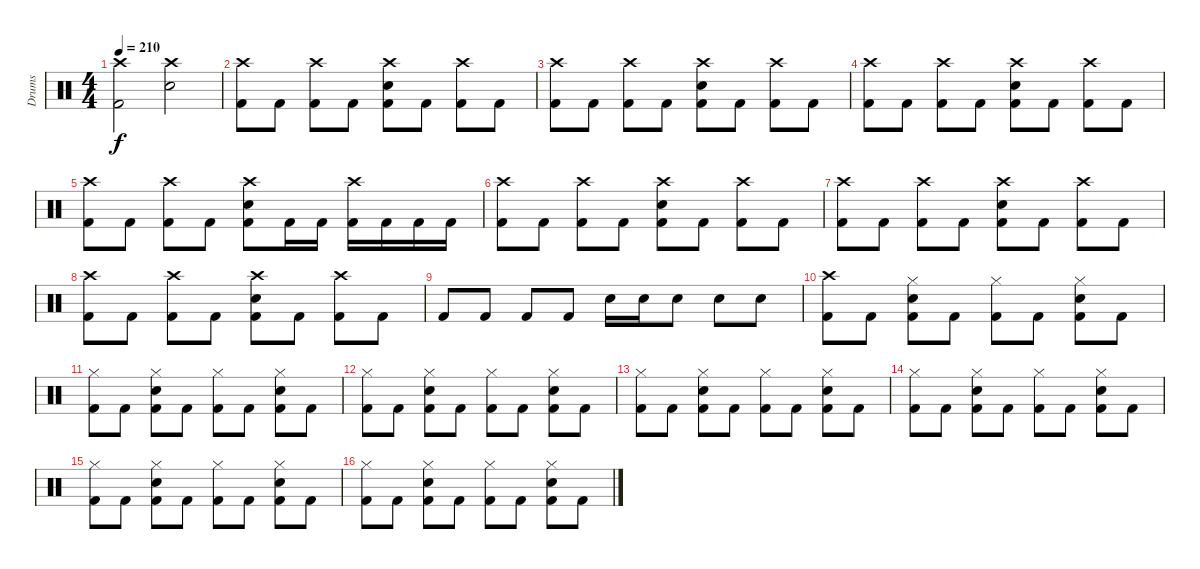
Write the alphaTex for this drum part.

\track ("Drums" "Drums") {instrument percussion}
\staff {score}
\articulation defaults
\ts (4 4)
\tempo 210
\clef neutral
\ks c
("Crash high (hit)" "Kick (hit) 2").2{dy f} ("Crash high (hit)" "Electric Snare (hit)").2 |
("Crash high (hit)" "Kick (hit) 2").8 "Kick (hit) 2".8 ("Crash high (hit)" "Kick (hit) 2").8 "Kick (hit) 2".8 ("Crash high (hit)" "Electric Snare (hit)" "Kick (hit) 2").8 "Kick (hit) 2".8 ("Crash high (hit)" "Kick (hit) 2").8 "Kick (hit) 2".8 |
("Crash high (hit)" "Kick (hit) 2").8 "Kick (hit) 2".8 ("Crash high (hit)" "Kick (hit) 2").8 "Kick (hit) 2".8 ("Crash high (hit)" "Electric Snare (hit)" "Kick (hit) 2").8 "Kick (hit) 2".8 ("Crash high (hit)" "Kick (hit) 2").8 "Kick (hit) 2".8 |
("Crash high (hit)" "Kick (hit) 2").8 "Kick (hit) 2".8 ("Crash high (hit)" "Kick (hit) 2").8 "Kick (hit) 2".8 ("Crash high (hit)" "Electric Snare (hit)" "Kick (hit) 2").8 "Kick (hit) 2".8 ("Crash high (hit)" "Kick (hit) 2").8 "Kick (hit) 2".8 |
("Crash high (hit)" "Kick (hit) 2").8 "Kick (hit) 2".8 ("Crash high (hit)" "Kick (hit) 2").8 "Kick (hit) 2".8 ("Crash high (hit)" "Electric Snare (hit)" "Kick (hit) 2").8 "Kick (hit) 2".16 "Kick (hit) 2".16 ("Crash high (hit)" "Kick (hit) 2").16 "Kick (hit) 2".16 "Kick (hit) 2".16 "Kick (hit) 2".16 |
("Crash high (hit)" "Kick (hit) 2").8 "Kick (hit) 2".8 ("Crash high (hit)" "Kick (hit) 2").8 "Kick (hit) 2".8 ("Crash high (hit)" "Electric Snare (hit)" "Kick (hit) 2").8 "Kick (hit) 2".8 ("Crash high (hit)" "Kick (hit) 2").8 "Kick (hit) 2".8 |
("Crash high (hit)" "Kick (hit) 2").8 "Kick (hit) 2".8 ("Crash high (hit)" "Kick (hit) 2").8 "Kick (hit) 2".8 ("Crash high (hit)" "Electric Snare (hit)" "Kick (hit) 2").8 "Kick (hit) 2".8 ("Crash high (hit)" "Kick (hit) 2").8 "Kick (hit) 2".8 |
("Crash high (hit)" "Kick (hit) 2").8 "Kick (hit) 2".8 ("Crash high (hit)" "Kick (hit) 2").8 "Kick (hit) 2".8 ("Crash high (hit)" "Electric Snare (hit)" "Kick (hit) 2").8 "Kick (hit) 2".8 ("Crash high (hit)" "Kick (hit) 2").8 "Kick (hit) 2".8 |
"Kick (hit) 2".8 "Kick (hit) 2".8 "Kick (hit) 2".8 "Kick (hit) 2".8 "Electric Snare (hit)".16 "Electric Snare (hit)".16 "Electric Snare (hit)".8 "Electric Snare (hit)".8 "Electric Snare (hit)".8 |
("Crash high (hit)" "Kick (hit) 2").8 "Kick (hit) 2".8 ("Hi-Hat (closed)" "Electric Snare (hit)" "Kick (hit) 2").8 "Kick (hit) 2".8 ("Hi-Hat (closed)" "Kick (hit) 2").8 "Kick (hit) 2".8 ("Hi-Hat (closed)" "Electric Snare (hit)" "Kick (hit) 2").8 "Kick (hit) 2".8 |
("Hi-Hat (closed)" "Kick (hit) 2").8 "Kick (hit) 2".8 ("Hi-Hat (closed)" "Electric Snare (hit)" "Kick (hit) 2").8 "Kick (hit) 2".8 ("Hi-Hat (closed)" "Kick (hit) 2").8 "Kick (hit) 2".8 ("Hi-Hat (closed)" "Electric Snare (hit)" "Kick (hit) 2").8 "Kick (hit) 2".8 |
("Hi-Hat (closed)" "Kick (hit) 2").8 "Kick (hit) 2".8 ("Hi-Hat (closed)" "Electric Snare (hit)" "Kick (hit) 2").8 "Kick (hit) 2".8 ("Hi-Hat (closed)" "Kick (hit) 2").8 "Kick (hit) 2".8 ("Hi-Hat (closed)" "Electric Snare (hit)" "Kick (hit) 2").8 "Kick (hit) 2".8 |
("Hi-Hat (closed)" "Kick (hit) 2").8 "Kick (hit) 2".8 ("Hi-Hat (closed)" "Electric Snare (hit)" "Kick (hit) 2").8 "Kick (hit) 2".8 ("Hi-Hat (closed)" "Kick (hit) 2").8 "Kick (hit) 2".8 ("Hi-Hat (closed)" "Electric Snare (hit)" "Kick (hit) 2").8 "Kick (hit) 2".8 |
("Hi-Hat (closed)" "Kick (hit) 2").8 "Kick (hit) 2".8 ("Hi-Hat (closed)" "Electric Snare (hit)" "Kick (hit) 2").8 "Kick (hit) 2".8 ("Hi-Hat (closed)" "Kick (hit) 2").8 "Kick (hit) 2".8 ("Hi-Hat (closed)" "Electric Snare (hit)" "Kick (hit) 2").8 "Kick (hit) 2".8 |
("Hi-Hat (closed)" "Kick (hit) 2").8 "Kick (hit) 2".8 ("Hi-Hat (closed)" "Electric Snare (hit)" "Kick (hit) 2").8 "Kick (hit) 2".8 ("Hi-Hat (closed)" "Kick (hit) 2").8 "Kick (hit) 2".8 ("Hi-Hat (closed)" "Electric Snare (hit)" "Kick (hit) 2").8 "Kick (hit) 2".8 |
("Hi-Hat (closed)" "Kick (hit) 2").8 "Kick (hit) 2".8 ("Hi-Hat (closed)" "Electric Snare (hit)" "Kick (hit) 2").8 "Kick (hit) 2".8 ("Hi-Hat (closed)" "Kick (hit) 2").8 "Kick (hit) 2".8 ("Hi-Hat (closed)" "Electric Snare (hit)" "Kick (hit) 2").8 "Kick (hit) 2".8
